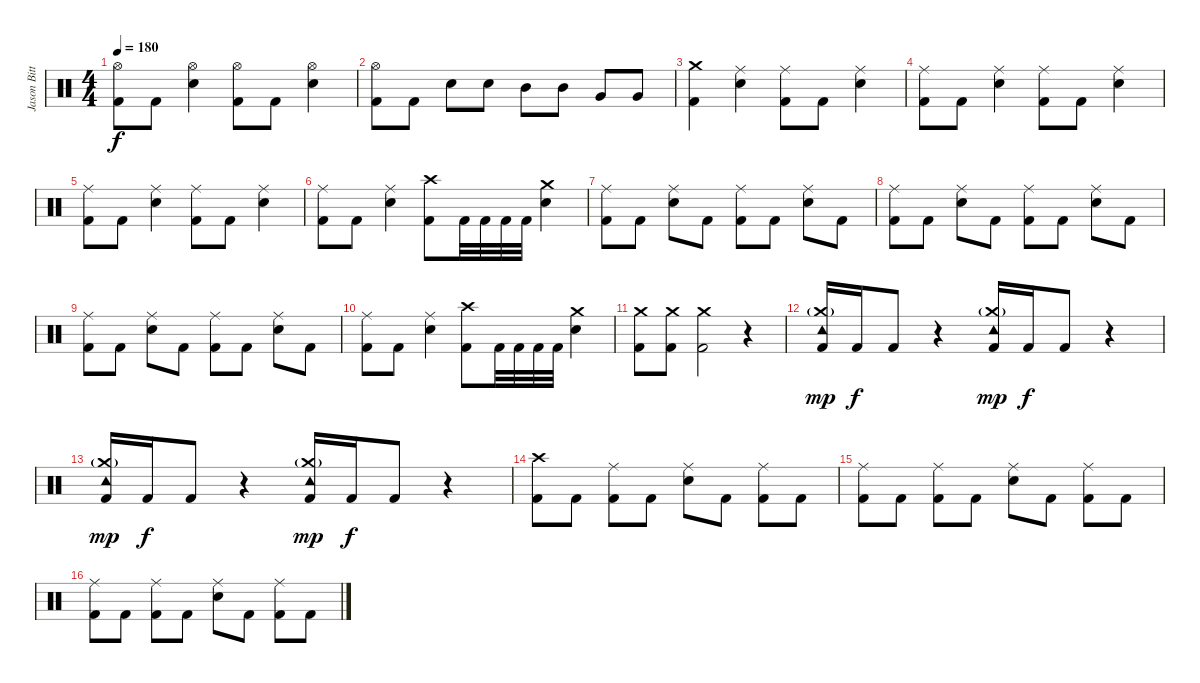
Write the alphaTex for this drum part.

\track ("Jason Bittner" "Jason Bitt") {instrument percussion}
\staff {score}
\articulation defaults
\ts (4 4)
\tempo 180
\clef neutral
\ks c
("Hi-Hat (open)" "Kick (hit) 2").8{dy f} "Kick (hit) 2".8 ("Hi-Hat (open)" "Electric Snare (hit)").4 ("Hi-Hat (open)" "Kick (hit) 2").8 "Kick (hit) 2".8 ("Hi-Hat (open)" "Electric Snare (hit)").4 |
("Hi-Hat (open)" "Kick (hit) 2").8 "Kick (hit) 2".8 "Electric Snare (hit)".8 "Electric Snare (hit)".8 "Mid Tom (hit)".8 "Mid Tom (hit)".8 "Very Low Tom (hit)".8 "Very Low Tom (hit)".8 |
("Crash medium (hit)" "Kick (hit) 2").4 ("Ride (middle)" "Electric Snare (hit)").4 ("Ride (middle)" "Kick (hit) 2").8 "Kick (hit) 2".8 ("Ride (middle)" "Electric Snare (hit)").4 |
("Ride (middle)" "Kick (hit) 2").8 "Kick (hit) 2".8 ("Ride (middle)" "Electric Snare (hit)").4 ("Ride (middle)" "Kick (hit) 2").8 "Kick (hit) 2".8 ("Ride (middle)" "Electric Snare (hit)").4 |
("Ride (middle)" "Kick (hit) 2").8 "Kick (hit) 2".8 ("Ride (middle)" "Electric Snare (hit)").4 ("Ride (middle)" "Kick (hit) 2").8 "Kick (hit) 2".8 ("Ride (middle)" "Electric Snare (hit)").4 |
("Ride (middle)" "Kick (hit) 2").8 "Kick (hit) 2".8 ("Ride (middle)" "Electric Snare (hit)").4 ("Crash high (hit)" "Kick (hit) 2").8 "Kick (hit) 2".32 "Kick (hit) 2".32 "Kick (hit) 2".32 "Kick (hit) 2".32 ("Crash medium (hit)" "Electric Snare (hit)").4 |
("Ride (middle)" "Kick (hit) 2").8 "Kick (hit) 2".8 ("Ride (middle)" "Electric Snare (hit)").8 "Kick (hit) 2".8 ("Ride (middle)" "Kick (hit) 2").8 "Kick (hit) 2".8 ("Ride (middle)" "Electric Snare (hit)").8 "Kick (hit) 2".8 |
("Ride (middle)" "Kick (hit) 2").8 "Kick (hit) 2".8 ("Ride (middle)" "Electric Snare (hit)").8 "Kick (hit) 2".8 ("Ride (middle)" "Kick (hit) 2").8 "Kick (hit) 2".8 ("Ride (middle)" "Electric Snare (hit)").8 "Kick (hit) 2".8 |
("Ride (middle)" "Kick (hit) 2").8 "Kick (hit) 2".8 ("Ride (middle)" "Electric Snare (hit)").8 "Kick (hit) 2".8 ("Ride (middle)" "Kick (hit) 2").8 "Kick (hit) 2".8 ("Ride (middle)" "Electric Snare (hit)").8 "Kick (hit) 2".8 |
("Ride (middle)" "Kick (hit) 2").8 "Kick (hit) 2".8 ("Ride (middle)" "Electric Snare (hit)").4 ("Crash high (hit)" "Kick (hit) 2").8 "Kick (hit) 2".32 "Kick (hit) 2".32 "Kick (hit) 2".32 "Kick (hit) 2".32 ("Crash medium (hit)" "Electric Snare (hit)").4 |
("Crash medium (hit)" "Kick (hit) 2").8 ("Crash medium (hit)" "Kick (hit) 2").8 ("Crash medium (hit)" "Kick (hit) 2").2 r.4 |
("Tambourine (hit)" "Crash medium (hit)"{g} "Kick (hit) 2").16{dy mp} "Kick (hit) 2".16{dy f} "Kick (hit) 2".8 r.4 ("Tambourine (hit)" "Crash medium (hit)"{g} "Kick (hit) 2").16{dy mp} "Kick (hit) 2".16{dy f} "Kick (hit) 2".8 r.4 |
("Tambourine (hit)" "Crash medium (hit)"{g} "Kick (hit) 2").16{dy mp} "Kick (hit) 2".16{dy f} "Kick (hit) 2".8 r.4 ("Tambourine (hit)" "Crash medium (hit)"{g} "Kick (hit) 2").16{dy mp} "Kick (hit) 2".16{dy f} "Kick (hit) 2".8 r.4 |
("Crash high (hit)" "Kick (hit) 2").8 "Kick (hit) 2".8 ("Ride (middle)" "Kick (hit) 2").8 "Kick (hit) 2".8 ("Ride (middle)" "Electric Snare (hit)").8 "Kick (hit) 2".8 ("Ride (middle)" "Kick (hit) 2").8 "Kick (hit) 2".8 |
("Ride (middle)" "Kick (hit) 2").8 "Kick (hit) 2".8 ("Ride (middle)" "Kick (hit) 2").8 "Kick (hit) 2".8 ("Ride (middle)" "Electric Snare (hit)").8 "Kick (hit) 2".8 ("Ride (middle)" "Kick (hit) 2").8 "Kick (hit) 2".8 |
("Ride (middle)" "Kick (hit) 2").8 "Kick (hit) 2".8 ("Ride (middle)" "Kick (hit) 2").8 "Kick (hit) 2".8 ("Ride (middle)" "Electric Snare (hit)").8 "Kick (hit) 2".8 ("Ride (middle)" "Kick (hit) 2").8 "Kick (hit) 2".8
